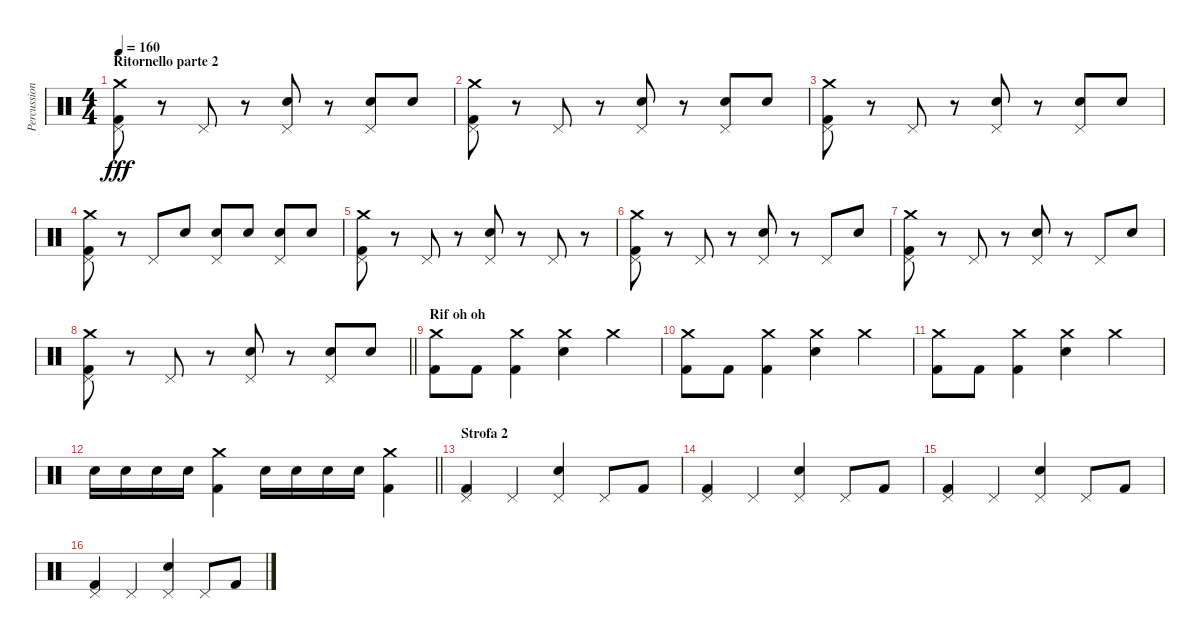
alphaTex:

\track ("Percussioni" "Percussion") {instrument percussion}
\staff {score}
\articulation defaults
\ts (4 4)
\section ("" "Ritornello parte 2")
\tempo 160
\clef neutral
\ks c
("Crash medium (hit)" "Pedal Hi-Hat (hit)" "Kick (hit) 2").8{dy fff} r.8 "Pedal Hi-Hat (hit)".8 r.8 ("Pedal Hi-Hat (hit)" "Snare (hit) 2").8 r.8 ("Pedal Hi-Hat (hit)" "Snare (hit) 2").8 "Snare (hit) 2".8 |
("Crash medium (hit)" "Pedal Hi-Hat (hit)" "Kick (hit) 2").8 r.8 "Pedal Hi-Hat (hit)".8 r.8 ("Pedal Hi-Hat (hit)" "Snare (hit) 2").8 r.8 ("Pedal Hi-Hat (hit)" "Snare (hit) 2").8 "Snare (hit) 2".8 |
("Crash medium (hit)" "Pedal Hi-Hat (hit)" "Kick (hit) 2").8 r.8 "Pedal Hi-Hat (hit)".8 r.8 ("Pedal Hi-Hat (hit)" "Snare (hit) 2").8 r.8 ("Pedal Hi-Hat (hit)" "Snare (hit) 2").8 "Snare (hit) 2".8 |
("Crash medium (hit)" "Pedal Hi-Hat (hit)" "Kick (hit) 2").8 r.8 "Pedal Hi-Hat (hit)".8 "Snare (hit) 2".8 ("Pedal Hi-Hat (hit)" "Snare (hit) 2").8 "Snare (hit) 2".8 ("Pedal Hi-Hat (hit)" "Snare (hit) 2").8 "Snare (hit) 2".8 |
("Crash medium (hit)" "Pedal Hi-Hat (hit)" "Kick (hit) 2").8 r.8 "Pedal Hi-Hat (hit)".8 r.8 ("Pedal Hi-Hat (hit)" "Snare (hit) 2").8 r.8 "Pedal Hi-Hat (hit)".8 r.8 |
("Crash medium (hit)" "Pedal Hi-Hat (hit)" "Kick (hit) 2").8 r.8 "Pedal Hi-Hat (hit)".8 r.8 ("Pedal Hi-Hat (hit)" "Snare (hit) 2").8 r.8 "Pedal Hi-Hat (hit)".8 "Snare (hit) 2".8 |
("Crash medium (hit)" "Pedal Hi-Hat (hit)" "Kick (hit) 2").8 r.8 "Pedal Hi-Hat (hit)".8 r.8 ("Pedal Hi-Hat (hit)" "Snare (hit) 2").8 r.8 "Pedal Hi-Hat (hit)".8 "Snare (hit) 2".8 |
\barLineRight lightlight
("Crash medium (hit)" "Pedal Hi-Hat (hit)" "Kick (hit) 2").8 r.8 "Pedal Hi-Hat (hit)".8 r.8 ("Pedal Hi-Hat (hit)" "Snare (hit) 2").8 r.8 ("Pedal Hi-Hat (hit)" "Snare (hit) 2").8 "Snare (hit) 2".8 |
\section ("" "Rif oh oh")
("Crash medium (hit)" "Kick (hit) 2").8 "Kick (hit) 2".8 ("Crash medium (hit)" "Kick (hit) 2").4 ("Crash medium (hit)" "Snare (hit) 2").4 "Crash medium (hit)".4 |
("Crash medium (hit)" "Kick (hit) 2").8 "Kick (hit) 2".8 ("Crash medium (hit)" "Kick (hit) 2").4 ("Crash medium (hit)" "Snare (hit) 2").4 "Crash medium (hit)".4 |
("Crash medium (hit)" "Kick (hit) 2").8 "Kick (hit) 2".8 ("Crash medium (hit)" "Kick (hit) 2").4 ("Crash medium (hit)" "Snare (hit) 2").4 "Crash medium (hit)".4 |
\barLineRight lightlight "Snare (hit) 2".16 "Snare (hit) 2".16 "Snare (hit) 2".16 "Snare (hit) 2".16
("Crash medium (hit)" "Kick (hit) 2").4 "Snare (hit) 2".16 "Snare (hit) 2".16 "Snare (hit) 2".16 "Snare (hit) 2".16 ("Crash medium (hit)" "Kick (hit) 2").4 |
\section ("" "Strofa 2")
("Pedal Hi-Hat (hit)" "Kick (hit) 2").4 "Pedal Hi-Hat (hit)".4 ("Pedal Hi-Hat (hit)" "Snare (hit) 2").4 "Pedal Hi-Hat (hit)".8 "Kick (hit) 2".8 |
("Pedal Hi-Hat (hit)" "Kick (hit) 2").4 "Pedal Hi-Hat (hit)".4 ("Pedal Hi-Hat (hit)" "Snare (hit) 2").4 "Pedal Hi-Hat (hit)".8 "Kick (hit) 2".8 |
("Pedal Hi-Hat (hit)" "Kick (hit) 2").4 "Pedal Hi-Hat (hit)".4 ("Pedal Hi-Hat (hit)" "Snare (hit) 2").4 "Pedal Hi-Hat (hit)".8 "Kick (hit) 2".8 |
("Pedal Hi-Hat (hit)" "Kick (hit) 2").4 "Pedal Hi-Hat (hit)".4 ("Pedal Hi-Hat (hit)" "Snare (hit) 2").4 "Pedal Hi-Hat (hit)".8 "Kick (hit) 2".8
